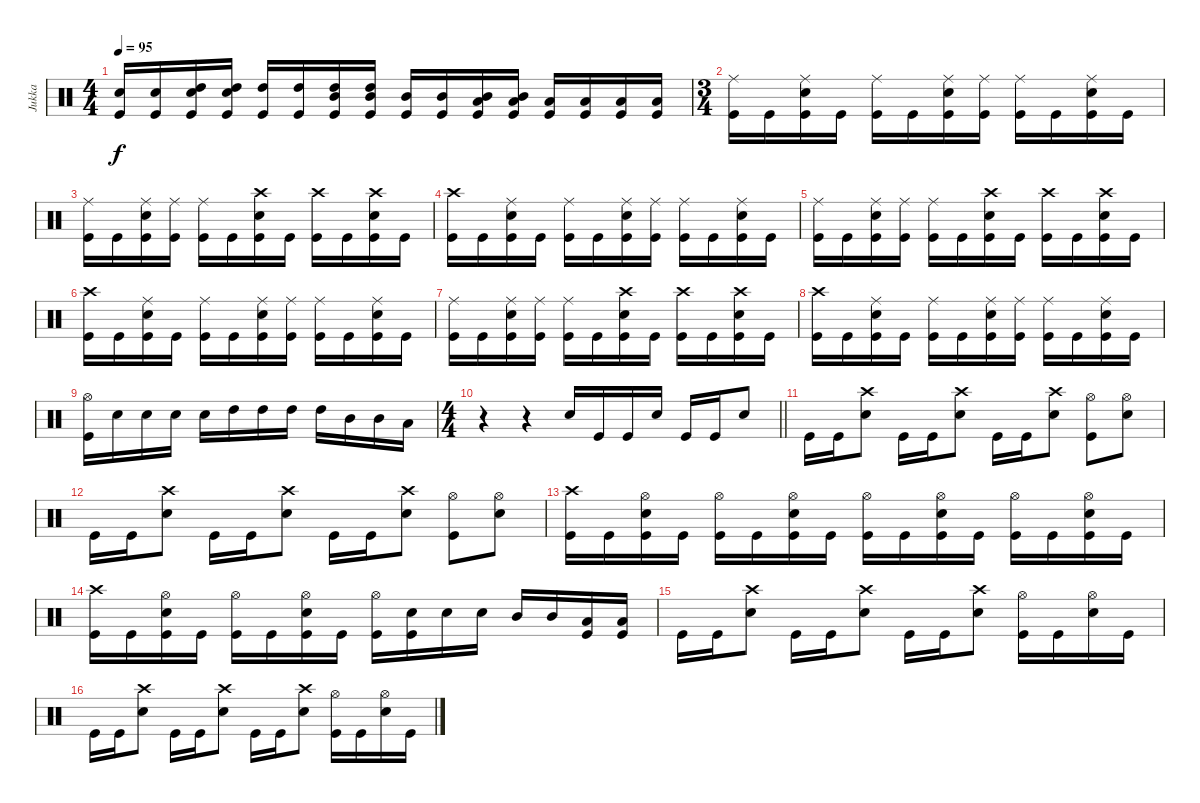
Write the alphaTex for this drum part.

\track ("Jukka" "Jukka") {instrument percussion}
\staff {score}
\articulation defaults
\ts (4 4)
\tempo 95
\clef neutral
\ks c
("Electric Snare (hit)" "Kick (hit)").16{dy f} ("Electric Snare (hit)" "Kick (hit)").16 ("High Tom (hit)" "Electric Snare (hit)" "Kick (hit)").16 ("High Tom (hit)" "Electric Snare (hit)" "Kick (hit)").16 ("High Tom (hit)" "Kick (hit)").16 ("High Tom (hit)" "Kick (hit)").16 ("High Tom (hit)" "Mid Tom (hit)" "Kick (hit)").16 ("High Tom (hit)" "Mid Tom (hit)" "Kick (hit)").16 ("Mid Tom (hit)" "Kick (hit)").16 ("Mid Tom (hit)" "Kick (hit)").16 ("Mid Tom (hit)" "Low Tom (hit)" "Kick (hit)").16 ("Mid Tom (hit)" "Low Tom (hit)" "Kick (hit)").16 ("Low Tom (hit)" "Kick (hit)").16 ("Low Tom (hit)" "Kick (hit)").16 ("Low Tom (hit)" "Kick (hit)").16 ("Low Tom (hit)" "Kick (hit)").16 |
\ts (3 4)
("Ride (middle)" "Kick (hit)").16 "Kick (hit)".16 ("Ride (middle)" "Electric Snare (hit)" "Kick (hit)").16 "Kick (hit)".16 ("Ride (middle)" "Kick (hit)").16 "Kick (hit)".16 ("Ride (middle)" "Electric Snare (hit)" "Kick (hit)").16 ("Ride (middle)" "Kick (hit)").16 ("Ride (middle)" "Kick (hit)").16 "Kick (hit)".16 ("Ride (middle)" "Electric Snare (hit)" "Kick (hit)").16 "Kick (hit)".16 |
("Ride (middle)" "Kick (hit)").16 "Kick (hit)".16 ("Ride (middle)" "Electric Snare (hit)" "Kick (hit)").16 ("Ride (middle)" "Kick (hit)").16 ("Ride (middle)" "Kick (hit)").16 "Kick (hit)".16 ("Crash high (hit)" "Electric Snare (hit)" "Kick (hit)").16 "Kick (hit)".16 ("Crash high (hit)" "Kick (hit)").16 "Kick (hit)".16 ("Crash high (hit)" "Electric Snare (hit)" "Kick (hit)").16 "Kick (hit)".16 |
("Crash high (hit)" "Kick (hit)").16 "Kick (hit)".16 ("Ride (middle)" "Electric Snare (hit)" "Kick (hit)").16 "Kick (hit)".16 ("Ride (middle)" "Kick (hit)").16 "Kick (hit)".16 ("Ride (middle)" "Electric Snare (hit)" "Kick (hit)").16 ("Ride (middle)" "Kick (hit)").16 ("Ride (middle)" "Kick (hit)").16 "Kick (hit)".16 ("Ride (middle)" "Electric Snare (hit)" "Kick (hit)").16 "Kick (hit)".16 |
("Ride (middle)" "Kick (hit)").16 "Kick (hit)".16 ("Ride (middle)" "Electric Snare (hit)" "Kick (hit)").16 ("Ride (middle)" "Kick (hit)").16 ("Ride (middle)" "Kick (hit)").16 "Kick (hit)".16 ("Crash high (hit)" "Electric Snare (hit)" "Kick (hit)").16 "Kick (hit)".16 ("Crash high (hit)" "Kick (hit)").16 "Kick (hit)".16 ("Crash high (hit)" "Electric Snare (hit)" "Kick (hit)").16 "Kick (hit)".16 |
("Crash high (hit)" "Kick (hit)").16 "Kick (hit)".16 ("Ride (middle)" "Electric Snare (hit)" "Kick (hit)").16 "Kick (hit)".16 ("Ride (middle)" "Kick (hit)").16 "Kick (hit)".16 ("Ride (middle)" "Electric Snare (hit)" "Kick (hit)").16 ("Ride (middle)" "Kick (hit)").16 ("Ride (middle)" "Kick (hit)").16 "Kick (hit)".16 ("Ride (middle)" "Electric Snare (hit)" "Kick (hit)").16 "Kick (hit)".16 |
("Ride (middle)" "Kick (hit)").16 "Kick (hit)".16 ("Ride (middle)" "Electric Snare (hit)" "Kick (hit)").16 ("Ride (middle)" "Kick (hit)").16 ("Ride (middle)" "Kick (hit)").16 "Kick (hit)".16 ("Crash high (hit)" "Electric Snare (hit)" "Kick (hit)").16 "Kick (hit)".16 ("Crash high (hit)" "Kick (hit)").16 "Kick (hit)".16 ("Crash high (hit)" "Electric Snare (hit)" "Kick (hit)").16 "Kick (hit)".16 |
("Crash high (hit)" "Kick (hit)").16 "Kick (hit)".16 ("Ride (middle)" "Electric Snare (hit)" "Kick (hit)").16 "Kick (hit)".16 ("Ride (middle)" "Kick (hit)").16 "Kick (hit)".16 ("Ride (middle)" "Electric Snare (hit)" "Kick (hit)").16 ("Ride (middle)" "Kick (hit)").16 ("Ride (middle)" "Kick (hit)").16 "Kick (hit)".16 ("Ride (middle)" "Electric Snare (hit)" "Kick (hit)").16 "Kick (hit)".16 |
("Hi-Hat (open)" "Kick (hit)").16 "Electric Snare (hit)".16 "Electric Snare (hit)".16 "Electric Snare (hit)".16 "Electric Snare (hit)".16 "High Tom (hit)".16 "High Tom (hit)".16 "High Tom (hit)".16 "High Tom (hit)".16 "Mid Tom (hit)".16 "Mid Tom (hit)".16 "Low Tom (hit)".16 |
\ts (4 4)
\barLineRight lightlight
r.4 r.4 "Electric Snare (hit)".16 "Kick (hit)".16 "Kick (hit)".16 "Electric Snare (hit)".16 "Kick (hit)".16 "Kick (hit)".16 "Electric Snare (hit)".8 |
"Kick (hit)".16 "Kick (hit)".16 ("Crash high (hit)" "Electric Snare (hit)").8 "Kick (hit)".16 "Kick (hit)".16 ("Crash high (hit)" "Electric Snare (hit)").8 "Kick (hit)".16 "Kick (hit)".16 ("Crash high (hit)" "Electric Snare (hit)").8 ("Hi-Hat (open)" "Kick (hit)").8 ("Hi-Hat (open)" "Electric Snare (hit)").8 |
"Kick (hit)".16 "Kick (hit)".16 ("Crash high (hit)" "Electric Snare (hit)").8 "Kick (hit)".16 "Kick (hit)".16 ("Crash high (hit)" "Electric Snare (hit)").8 "Kick (hit)".16 "Kick (hit)".16 ("Crash high (hit)" "Electric Snare (hit)").8 ("Hi-Hat (open)" "Kick (hit)").8 ("Hi-Hat (open)" "Electric Snare (hit)").8 |
("Crash high (hit)" "Kick (hit)").16 "Kick (hit)".16 ("Hi-Hat (open)" "Electric Snare (hit)" "Kick (hit)").16 "Kick (hit)".16 ("Hi-Hat (open)" "Kick (hit)").16 "Kick (hit)".16 ("Hi-Hat (open)" "Electric Snare (hit)" "Kick (hit)").16 "Kick (hit)".16 ("Hi-Hat (open)" "Kick (hit)").16 "Kick (hit)".16 ("Hi-Hat (open)" "Electric Snare (hit)" "Kick (hit)").16 "Kick (hit)".16 ("Hi-Hat (open)" "Kick (hit)").16 "Kick (hit)".16 ("Hi-Hat (open)" "Electric Snare (hit)" "Kick (hit)").16 "Kick (hit)".16 |
("Crash high (hit)" "Kick (hit)").16 "Kick (hit)".16 ("Hi-Hat (open)" "Electric Snare (hit)" "Kick (hit)").16 "Kick (hit)".16 ("Hi-Hat (open)" "Kick (hit)").16 "Kick (hit)".16 ("Hi-Hat (open)" "Electric Snare (hit)" "Kick (hit)").16 "Kick (hit)".16 ("Hi-Hat (open)" "Kick (hit)").16 ("Electric Snare (hit)" "Kick (hit)").16 "Electric Snare (hit)".16 "Electric Snare (hit)".16 "Mid Tom (hit)".16 "Mid Tom (hit)".16 ("Low Tom (hit)" "Kick (hit)").16 ("Low Tom (hit)" "Kick (hit)").16 |
"Kick (hit)".16 "Kick (hit)".16 ("Crash high (hit)" "Electric Snare (hit)").8 "Kick (hit)".16 "Kick (hit)".16 ("Crash high (hit)" "Electric Snare (hit)").8 "Kick (hit)".16 "Kick (hit)".16 ("Crash high (hit)" "Electric Snare (hit)").8 ("Hi-Hat (open)" "Kick (hit)").16 "Kick (hit)".16 ("Hi-Hat (open)" "Electric Snare (hit)").16 "Kick (hit)".16 |
"Kick (hit)".16 "Kick (hit)".16 ("Crash high (hit)" "Electric Snare (hit)").8 "Kick (hit)".16 "Kick (hit)".16 ("Crash high (hit)" "Electric Snare (hit)").8 "Kick (hit)".16 "Kick (hit)".16 ("Crash high (hit)" "Electric Snare (hit)").8 ("Hi-Hat (open)" "Kick (hit)").16 "Kick (hit)".16 ("Hi-Hat (open)" "Electric Snare (hit)").16 "Kick (hit)".16
